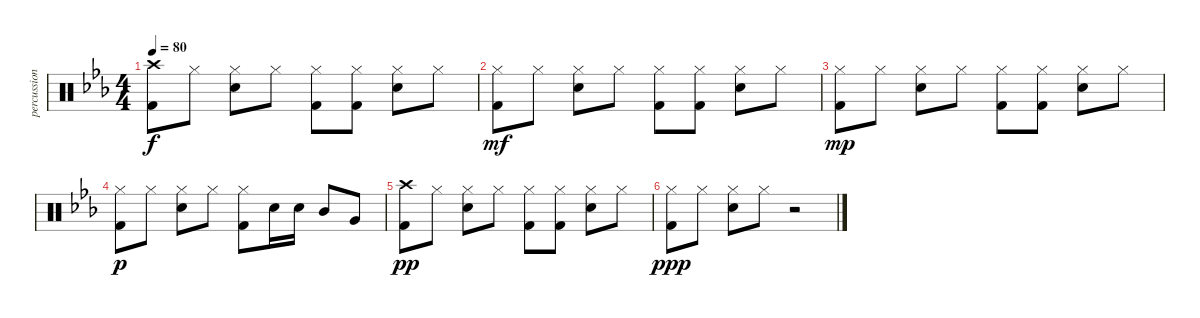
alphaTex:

\track ("percussion" "percussion") {instrument percussion}
\staff {score}
\articulation defaults
\ts (4 4)
\tempo 80
\clef neutral
\ks eb
("Crash high (hit)" "Kick (hit) 2").8{dy f} "Hi-Hat (closed)".8 ("Snare (hit) 2" "Hi-Hat (closed)").8 "Hi-Hat (closed)".8 ("Hi-Hat (closed)" "Kick (hit) 2").8 ("Hi-Hat (closed)" "Kick (hit) 2").8 ("Snare (hit) 2" "Hi-Hat (closed)").8 "Hi-Hat (closed)".8 |
("Hi-Hat (closed)" "Kick (hit) 2").8{dy mf} "Hi-Hat (closed)".8 ("Snare (hit) 2" "Hi-Hat (closed)").8 "Hi-Hat (closed)".8 ("Hi-Hat (closed)" "Kick (hit) 2").8 ("Hi-Hat (closed)" "Kick (hit) 2").8 ("Snare (hit) 2" "Hi-Hat (closed)").8 "Hi-Hat (closed)".8 |
("Hi-Hat (closed)" "Kick (hit) 2").8{dy mp} "Hi-Hat (closed)".8 ("Snare (hit) 2" "Hi-Hat (closed)").8 "Hi-Hat (closed)".8 ("Hi-Hat (closed)" "Kick (hit) 2").8 ("Hi-Hat (closed)" "Kick (hit) 2").8 ("Snare (hit) 2" "Hi-Hat (closed)").8 "Hi-Hat (closed)".8 |
("Hi-Hat (closed)" "Kick (hit) 2").8{dy p} "Hi-Hat (closed)".8 ("Snare (hit) 2" "Hi-Hat (closed)").8 "Hi-Hat (closed)".8 ("Hi-Hat (closed)" "Kick (hit) 2").8 "Snare (hit) 2".16 "Snare (hit) 2".16 "Mid Tom (hit)".8 "Very Low Tom (hit)".8 |
("Crash high (hit)" "Kick (hit) 2").8{dy pp} "Hi-Hat (closed)".8 ("Snare (hit) 2" "Hi-Hat (closed)").8 "Hi-Hat (closed)".8 ("Hi-Hat (closed)" "Kick (hit) 2").8 ("Hi-Hat (closed)" "Kick (hit) 2").8 ("Snare (hit) 2" "Hi-Hat (closed)").8 "Hi-Hat (closed)".8 |
("Hi-Hat (closed)" "Kick (hit) 2").8{dy ppp} "Hi-Hat (closed)".8 ("Snare (hit) 2" "Hi-Hat (closed)").8 "Hi-Hat (closed)".8 r.2
